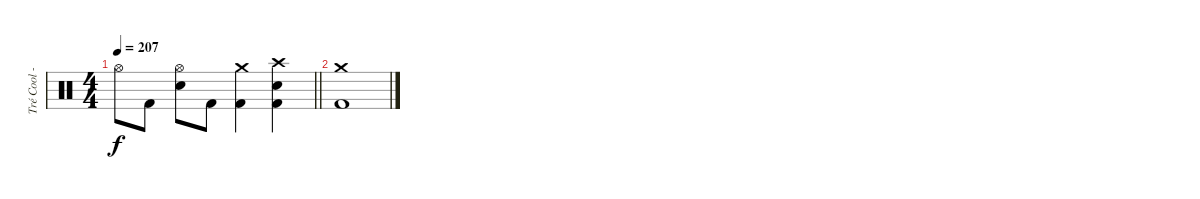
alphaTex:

\track ("Tré Cool - Drums" "Tré Cool -") {instrument percussion}
\staff {score}
\articulation defaults
\ts (4 4)
\tempo 207
\clef neutral
\barLineRight lightlight
\ks c "Hi-Hat (open)".8{dy f} "Kick (hit) 2".8
("Hi-Hat (open)" "Electric Snare (hit)").8 "Kick (hit) 2".8 ("Crash medium (hit)" "Kick (hit) 2").4 ("Crash high (hit)" "Electric Snare (hit)" "Kick (hit) 2").4 |
("Crash medium (hit)" "Kick (hit) 2").1
